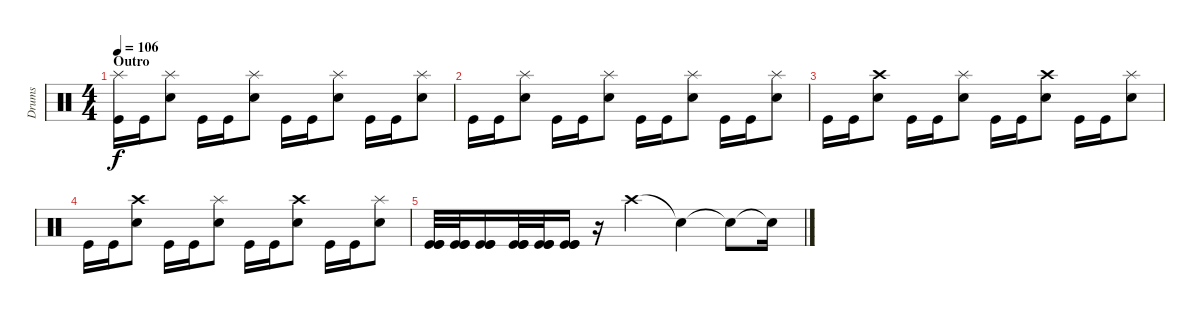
\track ("Drums" "Drums") {instrument percussion}
\staff {score}
\articulation defaults
\ts (4 4)
\section ("" "Outro")
\tempo 106
\clef neutral
\ks c
("Splash (hit)" "Kick (hit)").16{dy f} "Kick (hit)".16 ("Splash (hit)" "Snare (hit) 2").8 "Kick (hit)".16 "Kick (hit)".16 ("Splash (hit)" "Snare (hit) 2").8 "Kick (hit)".16 "Kick (hit)".16 ("Splash (hit)" "Snare (hit) 2").8 "Kick (hit)".16 "Kick (hit)".16 ("Splash (hit)" "Snare (hit) 2").8 |
"Kick (hit)".16 "Kick (hit)".16 ("Splash (hit)" "Snare (hit) 2").8 "Kick (hit)".16 "Kick (hit)".16 ("Splash (hit)" "Snare (hit) 2").8 "Kick (hit)".16 "Kick (hit)".16 ("Splash (hit)" "Snare (hit) 2").8 "Kick (hit)".16 "Kick (hit)".16 ("Splash (hit)" "Snare (hit) 2").8 |
"Kick (hit)".16 "Kick (hit)".16 ("Crash high (hit)" "Snare (hit) 2").8 "Kick (hit)".16 "Kick (hit)".16 ("Splash (hit)" "Snare (hit) 2").8 "Kick (hit)".16 "Kick (hit)".16 ("Crash high (hit)" "Snare (hit) 2").8 "Kick (hit)".16 "Kick (hit)".16 ("Splash (hit)" "Snare (hit) 2").8 |
"Kick (hit)".16 "Kick (hit)".16 ("Crash high (hit)" "Snare (hit) 2").8 "Kick (hit)".16 "Kick (hit)".16 ("Splash (hit)" "Snare (hit) 2").8 "Kick (hit)".16 "Kick (hit)".16 ("Crash high (hit)" "Snare (hit) 2").8 "Kick (hit)".16 "Kick (hit)".16 ("Splash (hit)" "Snare (hit) 2").8 |
("Kick (hit)" "Kick (hit)" "Kick (hit)").32 ("Kick (hit)" "Kick (hit)" "Kick (hit)").32 ("Kick (hit)" "Kick (hit)" "Kick (hit)").16 ("Kick (hit)" "Kick (hit)" "Kick (hit)").32 ("Kick (hit)" "Kick (hit)" "Kick (hit)").32 ("Kick (hit)" "Kick (hit)" "Kick (hit)").16 r.16 "Crash high (hit)".4 "Snare (hit)"{t}.4 "Snare (hit)"{t}.8 "Snare (hit)"{t}.16
